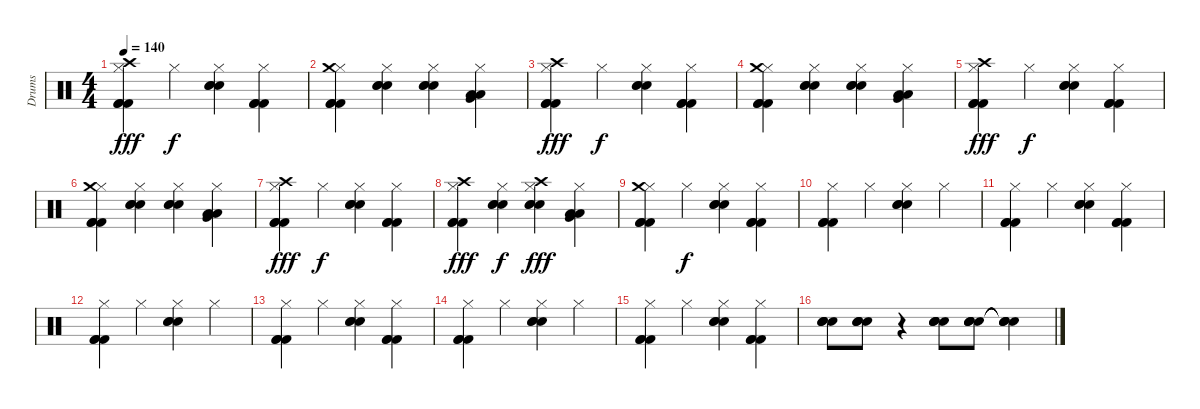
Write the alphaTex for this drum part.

\track ("Drums" "Drums") {instrument percussion}
\staff {score}
\articulation defaults
\ts (4 4)
\tempo 140
\clef neutral
\ks c
("Hi-Hat (closed)" "Kick (hit) 2" "Kick (hit) 2" "Kick (hit) 2" "Crash high (hit)").4{dy fff} "Hi-Hat (closed)".4{dy f} ("Hi-Hat (closed)" "Snare (hit) 2" "Snare (hit) 2" "Snare (hit) 2").4 ("Hi-Hat (closed)" "Kick (hit) 2" "Kick (hit) 2" "Kick (hit) 2").4 |
("Hi-Hat (closed)" "Kick (hit) 2" "Kick (hit) 2" "Kick (hit) 2" "Crash medium (hit)").4 ("Hi-Hat (closed)" "Snare (hit) 2" "Snare (hit) 2" "Snare (hit) 2").4 ("Hi-Hat (closed)" "Snare (hit) 2" "Snare (hit) 2" "Snare (hit) 2").4 ("Hi-Hat (closed)" "Low Tom (hit)" "Very Low Tom (hit)" "Low Floor Tom (hit)").4 |
("Hi-Hat (closed)" "Kick (hit) 2" "Kick (hit) 2" "Kick (hit) 2" "Crash high (hit)").4{dy fff} "Hi-Hat (closed)".4{dy f} ("Hi-Hat (closed)" "Snare (hit) 2" "Snare (hit) 2" "Snare (hit) 2").4 ("Hi-Hat (closed)" "Kick (hit) 2" "Kick (hit) 2" "Kick (hit) 2").4 |
("Hi-Hat (closed)" "Kick (hit) 2" "Kick (hit) 2" "Kick (hit) 2" "Crash medium (hit)").4 ("Hi-Hat (closed)" "Snare (hit) 2" "Snare (hit) 2" "Snare (hit) 2").4 ("Hi-Hat (closed)" "Snare (hit) 2" "Snare (hit) 2" "Snare (hit) 2").4 ("Hi-Hat (closed)" "Low Tom (hit)" "Very Low Tom (hit)" "Low Floor Tom (hit)").4 |
("Hi-Hat (closed)" "Kick (hit) 2" "Kick (hit) 2" "Kick (hit) 2" "Crash high (hit)").4{dy fff} "Hi-Hat (closed)".4{dy f} ("Hi-Hat (closed)" "Snare (hit) 2" "Snare (hit) 2" "Snare (hit) 2").4 ("Hi-Hat (closed)" "Kick (hit) 2" "Kick (hit) 2" "Kick (hit) 2").4 |
("Hi-Hat (closed)" "Kick (hit) 2" "Kick (hit) 2" "Kick (hit) 2" "Crash medium (hit)").4 ("Hi-Hat (closed)" "Snare (hit) 2" "Snare (hit) 2" "Snare (hit) 2").4 ("Hi-Hat (closed)" "Snare (hit) 2" "Snare (hit) 2" "Snare (hit) 2").4 ("Hi-Hat (closed)" "Low Tom (hit)" "Very Low Tom (hit)" "Low Floor Tom (hit)").4 |
("Hi-Hat (closed)" "Kick (hit) 2" "Kick (hit) 2" "Kick (hit) 2" "Crash high (hit)").4{dy fff} "Hi-Hat (closed)".4{dy f} ("Hi-Hat (closed)" "Snare (hit) 2" "Snare (hit) 2" "Snare (hit) 2").4 ("Hi-Hat (closed)" "Kick (hit) 2" "Kick (hit) 2" "Kick (hit) 2").4 |
("Hi-Hat (closed)" "Kick (hit) 2" "Kick (hit) 2" "Kick (hit) 2" "Crash high (hit)").4{dy fff} ("Hi-Hat (closed)" "Snare (hit) 2" "Snare (hit) 2" "Snare (hit) 2").4{dy f} ("Hi-Hat (closed)" "Snare (hit) 2" "Snare (hit) 2" "Snare (hit) 2" "Crash high (hit)").4{dy fff} ("Hi-Hat (closed)" "Low Tom (hit)" "Very Low Tom (hit)" "Low Floor Tom (hit)").4 |
("Hi-Hat (closed)" "Kick (hit) 2" "Kick (hit) 2" "Kick (hit) 2" "Crash medium (hit)").4 "Hi-Hat (closed)".4{dy f} ("Hi-Hat (closed)" "Snare (hit) 2" "Snare (hit) 2" "Snare (hit) 2").4 ("Hi-Hat (closed)" "Kick (hit) 2" "Kick (hit) 2" "Kick (hit) 2").4 |
("Hi-Hat (closed)" "Kick (hit) 2" "Kick (hit) 2" "Kick (hit) 2").4 "Hi-Hat (closed)".4 ("Hi-Hat (closed)" "Snare (hit) 2" "Snare (hit) 2" "Snare (hit) 2").4 "Hi-Hat (closed)".4 |
("Hi-Hat (closed)" "Kick (hit) 2" "Kick (hit) 2" "Kick (hit) 2").4 "Hi-Hat (closed)".4 ("Hi-Hat (closed)" "Snare (hit) 2" "Snare (hit) 2" "Snare (hit) 2").4 ("Hi-Hat (closed)" "Kick (hit) 2" "Kick (hit) 2" "Kick (hit) 2").4 |
("Hi-Hat (closed)" "Kick (hit) 2" "Kick (hit) 2" "Kick (hit) 2").4 "Hi-Hat (closed)".4 ("Hi-Hat (closed)" "Snare (hit) 2" "Snare (hit) 2" "Snare (hit) 2").4 "Hi-Hat (closed)".4 |
("Hi-Hat (closed)" "Kick (hit) 2" "Kick (hit) 2" "Kick (hit) 2").4 "Hi-Hat (closed)".4 ("Hi-Hat (closed)" "Snare (hit) 2" "Snare (hit) 2" "Snare (hit) 2").4 ("Hi-Hat (closed)" "Kick (hit) 2" "Kick (hit) 2" "Kick (hit) 2").4 |
("Hi-Hat (closed)" "Kick (hit) 2" "Kick (hit) 2" "Kick (hit) 2").4 "Hi-Hat (closed)".4 ("Hi-Hat (closed)" "Snare (hit) 2" "Snare (hit) 2" "Snare (hit) 2").4 "Hi-Hat (closed)".4 |
("Hi-Hat (closed)" "Kick (hit) 2" "Kick (hit) 2" "Kick (hit) 2").4 "Hi-Hat (closed)".4 ("Hi-Hat (closed)" "Snare (hit) 2" "Snare (hit) 2" "Snare (hit) 2").4 ("Hi-Hat (closed)" "Kick (hit) 2" "Kick (hit) 2" "Kick (hit) 2").4 |
("Snare (hit) 2" "Snare (hit) 2" "Snare (hit) 2" "Snare (hit) 2").8 ("Snare (hit) 2" "Snare (hit) 2" "Snare (hit) 2" "Snare (hit) 2").8 r.4 ("Snare (hit) 2" "Snare (hit) 2" "Snare (hit) 2" "Snare (hit) 2").8 ("Snare (hit) 2" "Snare (hit) 2" "Snare (hit) 2" "Snare (hit) 2").8 ("Snare (hit)"{t} "Snare (hit)"{t} "Snare (hit)"{t} "Snare (hit)"{t}).4
